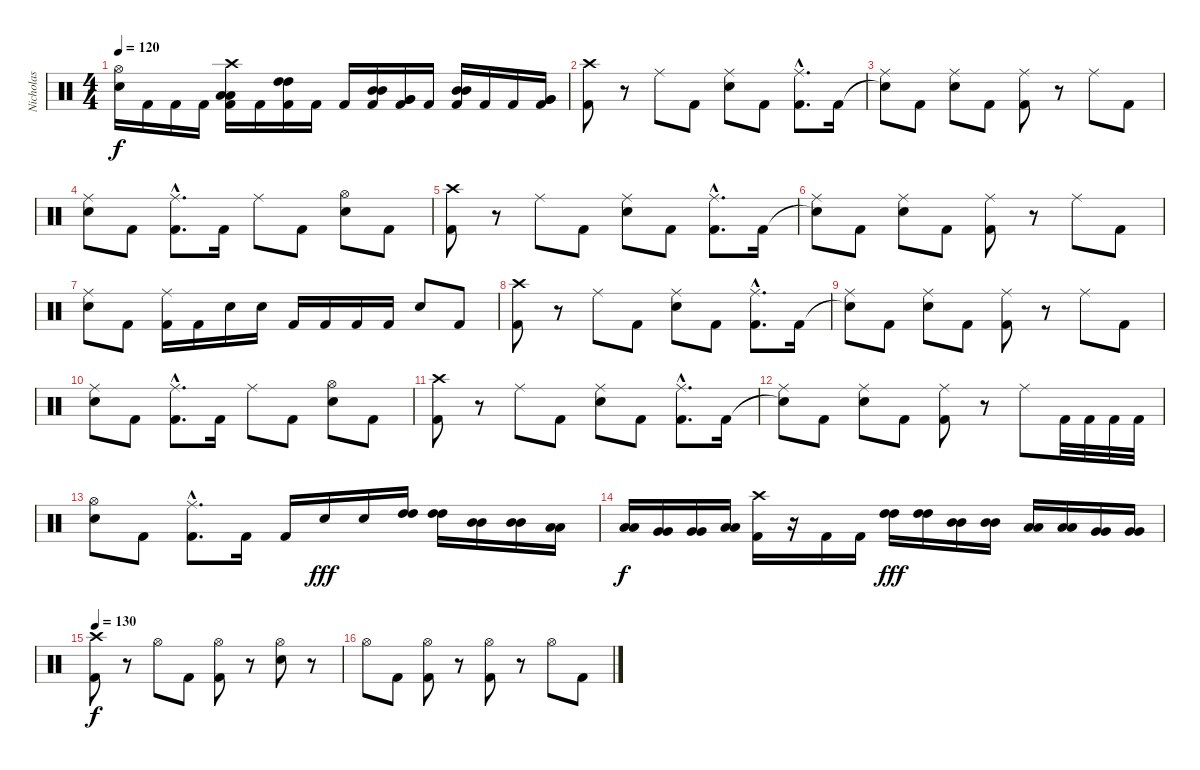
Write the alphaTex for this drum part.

\track ("Nicholas" "Nicholas") {instrument percussion}
\staff {score}
\articulation defaults
\ts (4 4)
\tempo 120
\clef neutral
\ks c
("Electric Snare (hit)" "Hi-Hat (open)").16{dy f} "Kick (hit) 2".16 "Kick (hit) 2".16 "Kick (hit) 2".16 ("Low Tom (hit)" "Low Tom (hit)" "Crash high (hit)" "Kick (hit) 2").16 "Kick (hit) 2".16 ("High Tom (hit)" "High Tom (hit)" "Kick (hit) 2").16 "Kick (hit) 2".16 "Kick (hit) 2".16 ("Mid Tom (hit)" "Mid Tom (hit)" "Kick (hit) 2").16 ("Very Low Tom (hit)" "Very Low Tom (hit)" "Kick (hit) 2").16 "Kick (hit) 2".16 ("Mid Tom (hit)" "Mid Tom (hit)" "Kick (hit) 2").16 "Kick (hit) 2".16 "Kick (hit) 2".16 ("Very Low Tom (hit)" "Very Low Tom (hit)" "Kick (hit) 2").16 |
("Kick (hit) 2" "Crash high (hit)").8 r.8 "Ride (middle)".8 "Kick (hit) 2".8 ("Electric Snare (hit)" "Ride (middle)").8 "Kick (hit) 2".8 ("Kick (hit) 2"{hac} "Ride (middle)"{hac}).8{d} "Kick (hit) 2".16 |
("Snare (hit)"{t} "Ride (middle)").8 "Kick (hit) 2".8 ("Electric Snare (hit)" "Ride (middle)").8 "Kick (hit) 2".8 ("Kick (hit) 2" "Ride (middle)").8 r.8 "Ride (middle)".8 "Kick (hit) 2".8 |
("Electric Snare (hit)" "Ride (middle)").8 "Kick (hit) 2".8 ("Kick (hit) 2"{hac} "Ride (middle)"{hac}).8{d} "Kick (hit) 2".16 "Ride (middle)".8 "Kick (hit) 2".8 ("Electric Snare (hit)" "Hi-Hat (open)").8 "Kick (hit) 2".8 |
("Kick (hit) 2" "Crash high (hit)").8 r.8 "Ride (middle)".8 "Kick (hit) 2".8 ("Electric Snare (hit)" "Ride (middle)").8 "Kick (hit) 2".8 ("Kick (hit) 2"{hac} "Ride (middle)"{hac}).8{d} "Kick (hit) 2".16 |
("Snare (hit)"{t} "Ride (middle)").8 "Kick (hit) 2".8 ("Electric Snare (hit)" "Ride (middle)").8 "Kick (hit) 2".8 ("Kick (hit) 2" "Ride (middle)").8 r.8 "Ride (middle)".8 "Kick (hit) 2".8 |
("Electric Snare (hit)" "Ride (middle)").8 "Kick (hit) 2".8 ("Kick (hit) 2" "Ride (middle)").16 "Kick (hit) 2".16 "Electric Snare (hit)".16 "Electric Snare (hit)".16 "Kick (hit) 2".16 "Kick (hit) 2".16 "Kick (hit) 2".16 "Kick (hit) 2".16 "Electric Snare (hit)".8 "Kick (hit) 2".8 |
("Kick (hit) 2" "Crash high (hit)").8 r.8 "Ride (middle)".8 "Kick (hit) 2".8 ("Electric Snare (hit)" "Ride (middle)").8 "Kick (hit) 2".8 ("Kick (hit) 2"{hac} "Ride (middle)"{hac}).8{d} "Kick (hit) 2".16 |
("Snare (hit)"{t} "Ride (middle)").8 "Kick (hit) 2".8 ("Electric Snare (hit)" "Ride (middle)").8 "Kick (hit) 2".8 ("Kick (hit) 2" "Ride (middle)").8 r.8 "Ride (middle)".8 "Kick (hit) 2".8 |
("Electric Snare (hit)" "Ride (middle)").8 "Kick (hit) 2".8 ("Kick (hit) 2"{hac} "Ride (middle)"{hac}).8{d} "Kick (hit) 2".16 "Ride (middle)".8 "Kick (hit) 2".8 ("Electric Snare (hit)" "Hi-Hat (open)").8 "Kick (hit) 2".8 |
("Kick (hit) 2" "Crash high (hit)").8 r.8 "Ride (middle)".8 "Kick (hit) 2".8 ("Electric Snare (hit)" "Ride (middle)").8 "Kick (hit) 2".8 ("Kick (hit) 2"{hac} "Ride (middle)"{hac}).8{d} "Kick (hit) 2".16 |
("Snare (hit)"{t} "Ride (middle)").8 "Kick (hit) 2".8 ("Electric Snare (hit)" "Ride (middle)").8 "Kick (hit) 2".8 ("Kick (hit) 2" "Ride (middle)").8 r.8 "Ride (middle)".8 "Kick (hit) 2".32 "Kick (hit) 2".32 "Kick (hit) 2".32 "Kick (hit) 2".32 |
("Electric Snare (hit)" "Hi-Hat (open)").8 "Kick (hit) 2".8 ("Kick (hit) 2"{hac} "Ride (middle)"{hac}).8{d} "Kick (hit) 2".16 "Kick (hit) 2".16 "Electric Snare (hit)".16{dy fff} "Electric Snare (hit)".16 ("High Tom (hit)" "High Tom (hit)").16 ("High Tom (hit)" "High Tom (hit)").16 ("Mid Tom (hit)" "Mid Tom (hit)").16 ("Mid Tom (hit)" "Mid Tom (hit)").16 ("Low Tom (hit)" "Low Tom (hit)").16 |
("Low Tom (hit)" "Low Tom (hit)").16{dy f} ("Very Low Tom (hit)" "Very Low Tom (hit)").16 ("Very Low Tom (hit)" "Very Low Tom (hit)").16 ("Low Floor Tom (hit)" "Low Floor Tom (hit)").16 ("Kick (hit) 2" "Crash high (hit)").16 r.16 "Kick (hit) 2".16 "Kick (hit) 2".16 ("High Tom (hit)" "High Tom (hit)").16{dy fff} ("High Tom (hit)" "High Tom (hit)").16 ("Mid Tom (hit)" "Mid Tom (hit)").16 ("Mid Tom (hit)" "Mid Tom (hit)").16 ("Low Tom (hit)" "Low Tom (hit)").16 ("Low Tom (hit)" "Low Tom (hit)").16 ("Very Low Tom (hit)" "Very Low Tom (hit)").16 ("Very Low Tom (hit)" "Very Low Tom (hit)").16 |
\tempo 130
("Crash high (hit)" "Kick (hit) 2").8{dy f} r.8 "Hi-Hat (open)".8 "Kick (hit) 2".8 ("Hi-Hat (open)" "Kick (hit) 2").8 r.8 ("Hi-Hat (open)" "Electric Snare (hit)").8 r.8 |
"Hi-Hat (open)".8 "Kick (hit) 2".8 ("Hi-Hat (open)" "Kick (hit) 2").8 r.8 ("Hi-Hat (open)" "Kick (hit) 2").8 r.8 "Hi-Hat (open)".8 "Kick (hit) 2".8
